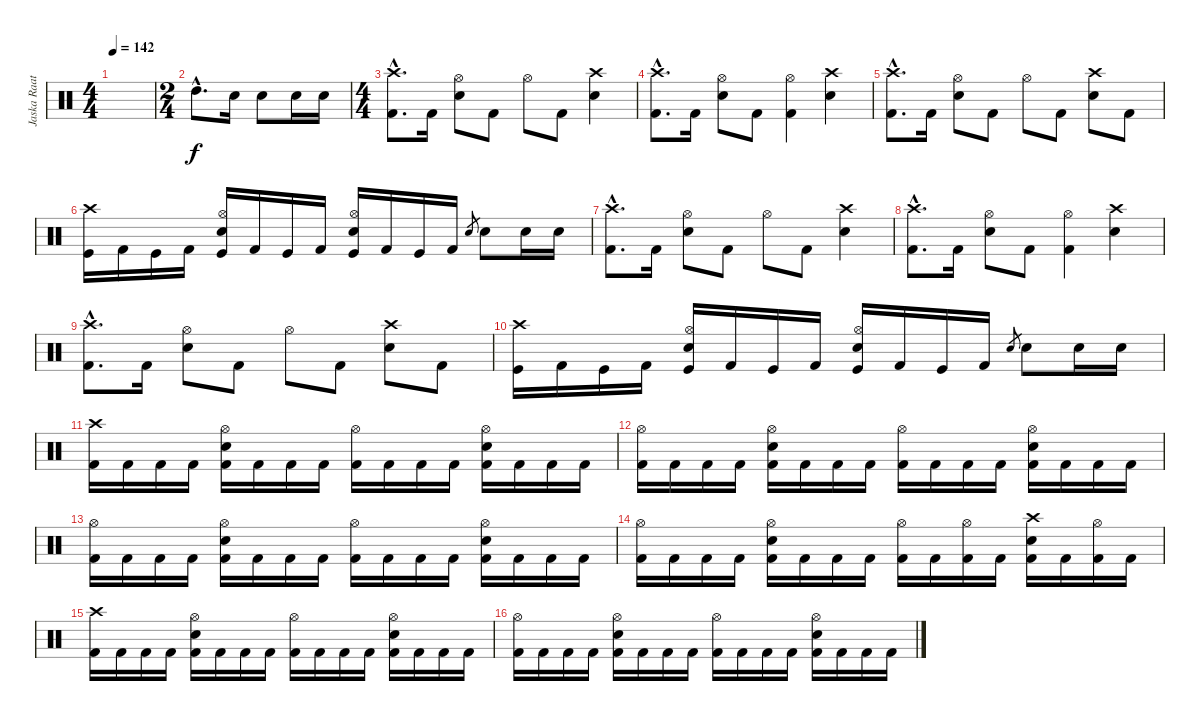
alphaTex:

\track ("Jaska Raatikainen" "Jaska Raat") {instrument percussion}
\staff {score}
\articulation defaults
\ts (4 4)
\tempo 142
\clef neutral
\ks c
|
\ts (2 4)
"High Tom (hit)"{hac}.8{d} "Electric Snare (hit)".16 "Electric Snare (hit)".8 "Electric Snare (hit)".16 "Electric Snare (hit)".16 |
\ts (4 4)
("Crash high (hit)"{hac} "Kick (hit) 2"{hac}).8{d} "Kick (hit) 2".16 ("Hi-Hat (open)" "Electric Snare (hit)").8 "Kick (hit) 2".8 "Hi-Hat (open)".8 "Kick (hit) 2".8 ("Crash high (hit)" "Electric Snare (hit)").4 |
("Crash high (hit)"{hac} "Kick (hit) 2"{hac}).8{d} "Kick (hit) 2".16 ("Hi-Hat (open)" "Electric Snare (hit)").8 "Kick (hit) 2".8 ("Hi-Hat (open)" "Kick (hit) 2").4 ("Crash high (hit)" "Electric Snare (hit)").4 |
("Crash high (hit)"{hac} "Kick (hit) 2"{hac}).8{d} "Kick (hit) 2".16 ("Hi-Hat (open)" "Electric Snare (hit)").8 "Kick (hit) 2".8 "Hi-Hat (open)".8 "Kick (hit) 2".8 ("Crash high (hit)" "Electric Snare (hit)").8 "Kick (hit) 2".8 |
("Crash high (hit)" "Kick (hit)").16 "Kick (hit) 2".16 "Kick (hit)".16 "Kick (hit) 2".16 ("Hi-Hat (open)" "Electric Snare (hit)" "Kick (hit)").16 "Kick (hit) 2".16 "Kick (hit)".16 "Kick (hit) 2".16 ("Hi-Hat (open)" "Electric Snare (hit)" "Kick (hit)").16 "Kick (hit) 2".16 "Kick (hit)".16 "Kick (hit) 2".16 "Electric Snare (hit)".8{gr} "Electric Snare (hit)".8 "Electric Snare (hit)".16 "Electric Snare (hit)".16 |
("Crash high (hit)"{hac} "Kick (hit) 2"{hac}).8{d} "Kick (hit) 2".16 ("Hi-Hat (open)" "Electric Snare (hit)").8 "Kick (hit) 2".8 "Hi-Hat (open)".8 "Kick (hit) 2".8 ("Crash high (hit)" "Electric Snare (hit)").4 |
("Crash high (hit)"{hac} "Kick (hit) 2"{hac}).8{d} "Kick (hit) 2".16 ("Hi-Hat (open)" "Electric Snare (hit)").8 "Kick (hit) 2".8 ("Hi-Hat (open)" "Kick (hit) 2").4 ("Crash high (hit)" "Electric Snare (hit)").4 |
("Crash high (hit)"{hac} "Kick (hit) 2"{hac}).8{d} "Kick (hit) 2".16 ("Hi-Hat (open)" "Electric Snare (hit)").8 "Kick (hit) 2".8 "Hi-Hat (open)".8 "Kick (hit) 2".8 ("Crash high (hit)" "Electric Snare (hit)").8 "Kick (hit) 2".8 |
("Crash high (hit)" "Kick (hit)").16 "Kick (hit) 2".16 "Kick (hit)".16 "Kick (hit) 2".16 ("Hi-Hat (open)" "Electric Snare (hit)" "Kick (hit)").16 "Kick (hit) 2".16 "Kick (hit)".16 "Kick (hit) 2".16 ("Hi-Hat (open)" "Electric Snare (hit)" "Kick (hit)").16 "Kick (hit) 2".16 "Kick (hit)".16 "Kick (hit) 2".16 "Electric Snare (hit)".8{gr} "Electric Snare (hit)".8 "Electric Snare (hit)".16 "Electric Snare (hit)".16 |
("Crash high (hit)" "Kick (hit) 2").16 "Kick (hit) 2".16 "Kick (hit) 2".16 "Kick (hit) 2".16 ("Hi-Hat (open)" "Electric Snare (hit)" "Kick (hit) 2").16 "Kick (hit) 2".16 "Kick (hit) 2".16 "Kick (hit) 2".16 ("Hi-Hat (open)" "Kick (hit) 2").16 "Kick (hit) 2".16 "Kick (hit) 2".16 "Kick (hit) 2".16 ("Hi-Hat (open)" "Electric Snare (hit)" "Kick (hit) 2").16 "Kick (hit) 2".16 "Kick (hit) 2".16 "Kick (hit) 2".16 |
("Hi-Hat (open)" "Kick (hit) 2").16 "Kick (hit) 2".16 "Kick (hit) 2".16 "Kick (hit) 2".16 ("Hi-Hat (open)" "Electric Snare (hit)" "Kick (hit) 2").16 "Kick (hit) 2".16 "Kick (hit) 2".16 "Kick (hit) 2".16 ("Hi-Hat (open)" "Kick (hit) 2").16 "Kick (hit) 2".16 "Kick (hit) 2".16 "Kick (hit) 2".16 ("Hi-Hat (open)" "Electric Snare (hit)" "Kick (hit) 2").16 "Kick (hit) 2".16 "Kick (hit) 2".16 "Kick (hit) 2".16 |
("Hi-Hat (open)" "Kick (hit) 2").16 "Kick (hit) 2".16 "Kick (hit) 2".16 "Kick (hit) 2".16 ("Hi-Hat (open)" "Electric Snare (hit)" "Kick (hit) 2").16 "Kick (hit) 2".16 "Kick (hit) 2".16 "Kick (hit) 2".16 ("Hi-Hat (open)" "Kick (hit) 2").16 "Kick (hit) 2".16 "Kick (hit) 2".16 "Kick (hit) 2".16 ("Hi-Hat (open)" "Electric Snare (hit)" "Kick (hit) 2").16 "Kick (hit) 2".16 "Kick (hit) 2".16 "Kick (hit) 2".16 |
("Hi-Hat (open)" "Kick (hit) 2").16 "Kick (hit) 2".16 "Kick (hit) 2".16 "Kick (hit) 2".16 ("Hi-Hat (open)" "Electric Snare (hit)" "Kick (hit) 2").16 "Kick (hit) 2".16 "Kick (hit) 2".16 "Kick (hit) 2".16 ("Hi-Hat (open)" "Kick (hit) 2").16 "Kick (hit) 2".16 ("Hi-Hat (open)" "Kick (hit) 2").16 "Kick (hit) 2".16 ("Crash high (hit)" "Electric Snare (hit)" "Kick (hit) 2").16 "Kick (hit) 2".16 ("Hi-Hat (open)" "Kick (hit) 2").16 "Kick (hit) 2".16 |
("Crash high (hit)" "Kick (hit) 2").16 "Kick (hit) 2".16 "Kick (hit) 2".16 "Kick (hit) 2".16 ("Hi-Hat (open)" "Electric Snare (hit)" "Kick (hit) 2").16 "Kick (hit) 2".16 "Kick (hit) 2".16 "Kick (hit) 2".16 ("Hi-Hat (open)" "Kick (hit) 2").16 "Kick (hit) 2".16 "Kick (hit) 2".16 "Kick (hit) 2".16 ("Hi-Hat (open)" "Electric Snare (hit)" "Kick (hit) 2").16 "Kick (hit) 2".16 "Kick (hit) 2".16 "Kick (hit) 2".16 |
("Hi-Hat (open)" "Kick (hit) 2").16 "Kick (hit) 2".16 "Kick (hit) 2".16 "Kick (hit) 2".16 ("Hi-Hat (open)" "Electric Snare (hit)" "Kick (hit) 2").16 "Kick (hit) 2".16 "Kick (hit) 2".16 "Kick (hit) 2".16 ("Hi-Hat (open)" "Kick (hit) 2").16 "Kick (hit) 2".16 "Kick (hit) 2".16 "Kick (hit) 2".16 ("Hi-Hat (open)" "Electric Snare (hit)" "Kick (hit) 2").16 "Kick (hit) 2".16 "Kick (hit) 2".16 "Kick (hit) 2".16
